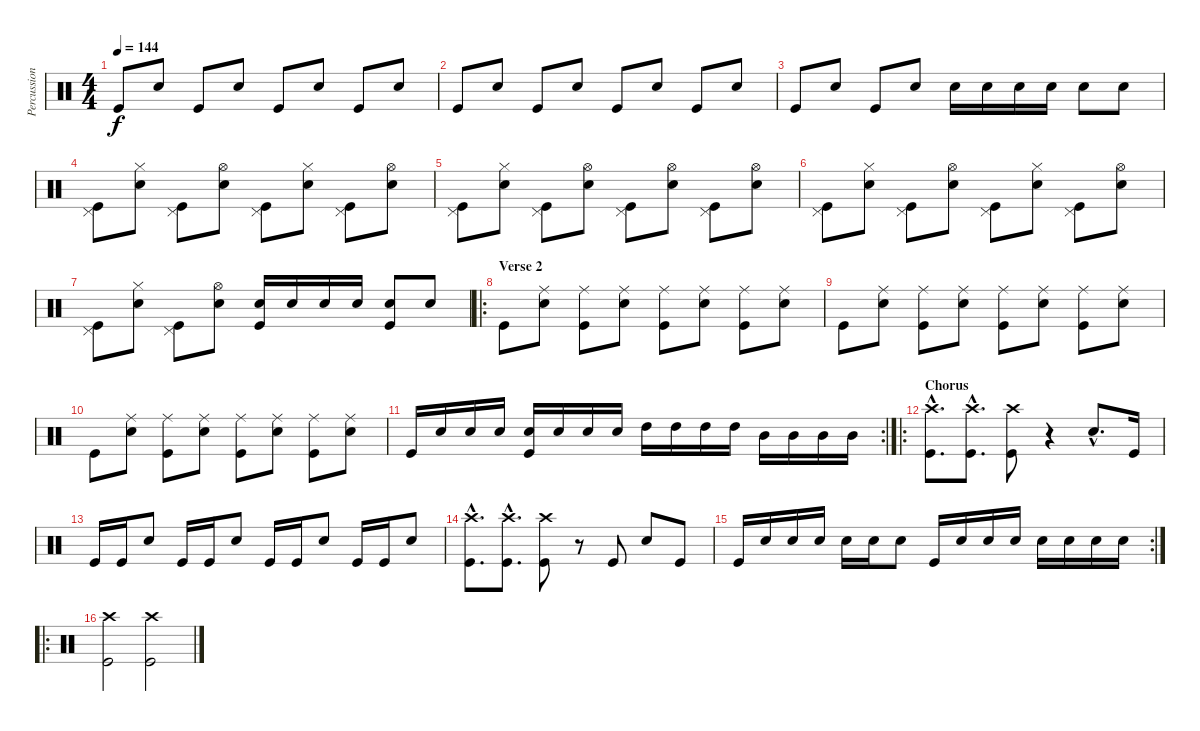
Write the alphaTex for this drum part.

\track ("Percussion" "Percussion") {instrument percussion}
\staff {score}
\articulation defaults
\ts (4 4)
\tempo 144
\clef neutral
\ks c "Kick (hit)".8{dy f} "Snare (hit) 2".8 "Kick (hit)".8 "Snare (hit) 2".8 "Kick (hit)".8 "Snare (hit) 2".8 "Kick (hit)".8 "Snare (hit) 2".8
|
"Kick (hit)".8 "Snare (hit) 2".8 "Kick (hit)".8 "Snare (hit) 2".8 "Kick (hit)".8 "Snare (hit) 2".8 "Kick (hit)".8 "Snare (hit) 2".8 |
"Kick (hit)".8 "Snare (hit) 2".8 "Kick (hit)".8 "Snare (hit) 2".8 "Snare (hit) 2".16 "Snare (hit) 2".16 "Snare (hit) 2".16 "Snare (hit) 2".16 "Snare (hit) 2".8 "Snare (hit) 2".8 |
("Pedal Hi-Hat (hit)" "Kick (hit)").8 ("Hi-Hat (closed)" "Snare (hit) 2").8 ("Pedal Hi-Hat (hit)" "Kick (hit)").8 ("Hi-Hat (open)" "Snare (hit) 2").8 ("Pedal Hi-Hat (hit)" "Kick (hit)").8 ("Hi-Hat (closed)" "Snare (hit) 2").8 ("Pedal Hi-Hat (hit)" "Kick (hit)").8 ("Hi-Hat (open)" "Snare (hit) 2").8 |
("Pedal Hi-Hat (hit)" "Kick (hit)").8 ("Hi-Hat (closed)" "Snare (hit) 2").8 ("Pedal Hi-Hat (hit)" "Kick (hit)").8 ("Hi-Hat (open)" "Snare (hit) 2").8 ("Pedal Hi-Hat (hit)" "Kick (hit)").8 ("Hi-Hat (open)" "Snare (hit) 2").8 ("Pedal Hi-Hat (hit)" "Kick (hit)").8 ("Hi-Hat (open)" "Snare (hit) 2").8 |
("Pedal Hi-Hat (hit)" "Kick (hit)").8 ("Hi-Hat (closed)" "Snare (hit) 2").8 ("Pedal Hi-Hat (hit)" "Kick (hit)").8 ("Hi-Hat (open)" "Snare (hit) 2").8 ("Pedal Hi-Hat (hit)" "Kick (hit)").8 ("Hi-Hat (closed)" "Snare (hit) 2").8 ("Pedal Hi-Hat (hit)" "Kick (hit)").8 ("Hi-Hat (open)" "Snare (hit) 2").8 |
("Pedal Hi-Hat (hit)" "Kick (hit)").8 ("Hi-Hat (closed)" "Snare (hit) 2").8 ("Pedal Hi-Hat (hit)" "Kick (hit)").8 ("Hi-Hat (open)" "Snare (hit) 2").8 ("Snare (hit) 2" "Kick (hit)").16 "Snare (hit) 2".16 "Snare (hit) 2".16 "Snare (hit) 2".16 ("Snare (hit) 2" "Kick (hit)").8 "Snare (hit) 2".8 |
\ro
\section ("" "Verse 2")
"Kick (hit)".8 ("Ride (middle)" "Snare (hit) 2").8 ("Ride (middle)" "Kick (hit)").8 ("Ride (middle)" "Snare (hit) 2").8 ("Ride (middle)" "Kick (hit)").8 ("Ride (middle)" "Snare (hit) 2").8 ("Ride (middle)" "Kick (hit)").8 ("Ride (middle)" "Snare (hit) 2").8 |
"Kick (hit)".8 ("Ride (middle)" "Snare (hit) 2").8 ("Ride (middle)" "Kick (hit)").8 ("Ride (middle)" "Snare (hit) 2").8 ("Ride (middle)" "Kick (hit)").8 ("Ride (middle)" "Snare (hit) 2").8 ("Ride (middle)" "Kick (hit)").8 ("Ride (middle)" "Snare (hit) 2").8 |
"Kick (hit)".8 ("Ride (middle)" "Snare (hit) 2").8 ("Ride (middle)" "Kick (hit)").8 ("Ride (middle)" "Snare (hit) 2").8 ("Ride (middle)" "Kick (hit)").8 ("Ride (middle)" "Snare (hit) 2").8 ("Ride (middle)" "Kick (hit)").8 ("Ride (middle)" "Snare (hit) 2").8 |
\rc 2 "Kick (hit)".16 "Snare (hit) 2".16 "Snare (hit) 2".16 "Snare (hit) 2".16
("Snare (hit) 2" "Kick (hit)").16 "Snare (hit) 2".16 "Snare (hit) 2".16 "Snare (hit) 2".16 "High Tom (hit)".16 "High Tom (hit)".16 "High Tom (hit)".16 "High Tom (hit)".16 "Mid Tom (hit)".16 "Mid Tom (hit)".16 "Mid Tom (hit)".16 "Mid Tom (hit)".16 |
\ro
\section ("" "Chorus")
("Crash high (hit)"{hac} "Kick (hit)"{hac}).8{d} ("Crash high (hit)"{hac} "Kick (hit)"{hac}).8{d} ("Crash high (hit)" "Kick (hit)").8 r.4 "Snare (hit) 2"{hac}.8{d} "Kick (hit)".16 |
"Kick (hit)".16 "Kick (hit)".16 "Snare (hit) 2".8 "Kick (hit)".16 "Kick (hit)".16 "Snare (hit) 2".8 "Kick (hit)".16 "Kick (hit)".16 "Snare (hit) 2".8 "Kick (hit)".16 "Kick (hit)".16 "Snare (hit) 2".8 |
("Crash high (hit)"{hac} "Kick (hit)"{hac}).8{d} ("Crash high (hit)"{hac} "Kick (hit)"{hac}).8{d} ("Crash high (hit)" "Kick (hit)").8 r.8 "Kick (hit)".8 "Snare (hit) 2".8 "Kick (hit)".8 |
\rc 2 "Kick (hit)".16 "Snare (hit) 2".16 "Snare (hit) 2".16 "Snare (hit) 2".16 "Snare (hit) 2".16 "Snare (hit) 2".16 "Snare (hit) 2".8 "Kick (hit)".16 "Snare (hit) 2".16 "Snare (hit) 2".16 "Snare (hit) 2".16 "Snare (hit) 2".16 "Snare (hit) 2".16 "Snare (hit) 2".16 "Snare (hit) 2".16
|
\ro
("Crash high (hit)" "Kick (hit)").2 ("Crash high (hit)" "Kick (hit)").2
